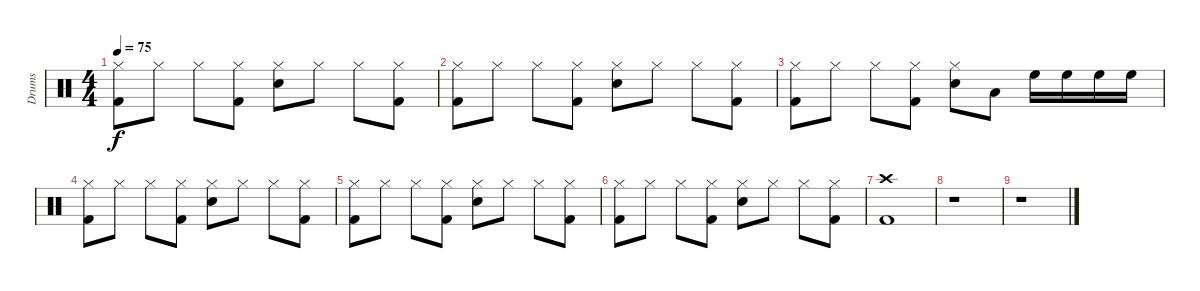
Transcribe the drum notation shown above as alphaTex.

\track ("Drums" "Drums") {instrument percussion}
\staff {score}
\articulation defaults
\ts (4 4)
\tempo 75
\clef neutral
\ks c
("Kick (hit) 2" "Hi-Hat (closed)").8{dy f} "Hi-Hat (closed)".8 "Hi-Hat (closed)".8 ("Kick (hit) 2" "Hi-Hat (closed)").8 ("Snare (hit) 2" "Hi-Hat (closed)").8 "Hi-Hat (closed)".8 "Hi-Hat (closed)".8 ("Kick (hit) 2" "Hi-Hat (closed)").8 |
("Kick (hit) 2" "Hi-Hat (closed)").8 "Hi-Hat (closed)".8 "Hi-Hat (closed)".8 ("Kick (hit) 2" "Hi-Hat (closed)").8 ("Snare (hit) 2" "Hi-Hat (closed)").8 "Hi-Hat (closed)".8 "Hi-Hat (closed)".8 ("Kick (hit) 2" "Hi-Hat (closed)").8 |
("Kick (hit) 2" "Hi-Hat (closed)").8 "Hi-Hat (closed)".8 "Hi-Hat (closed)".8 ("Kick (hit) 2" "Hi-Hat (closed)").8 ("Snare (hit) 2" "Hi-Hat (closed)").8 "Low Tom (hit)".8 "High Floor Tom (hit)".16 "High Floor Tom (hit)".16 "High Floor Tom (hit)".16 "High Floor Tom (hit)".16 |
("Kick (hit) 2" "Hi-Hat (closed)").8 "Hi-Hat (closed)".8 "Hi-Hat (closed)".8 ("Kick (hit) 2" "Hi-Hat (closed)").8 ("Snare (hit) 2" "Hi-Hat (closed)").8 "Hi-Hat (closed)".8 "Hi-Hat (closed)".8 ("Kick (hit) 2" "Hi-Hat (closed)").8 |
("Kick (hit) 2" "Hi-Hat (closed)").8 "Hi-Hat (closed)".8 "Hi-Hat (closed)".8 ("Kick (hit) 2" "Hi-Hat (closed)").8 ("Snare (hit) 2" "Hi-Hat (closed)").8 "Hi-Hat (closed)".8 "Hi-Hat (closed)".8 ("Kick (hit) 2" "Hi-Hat (closed)").8 |
("Kick (hit) 2" "Hi-Hat (closed)").8 "Hi-Hat (closed)".8 "Hi-Hat (closed)".8 ("Kick (hit) 2" "Hi-Hat (closed)").8 ("Snare (hit) 2" "Hi-Hat (closed)").8 "Hi-Hat (closed)".8 "Hi-Hat (closed)".8 ("Kick (hit) 2" "Hi-Hat (closed)").8 |
("Kick (hit) 2" "Crash high (hit)").1 |
r.1 |
r.1
